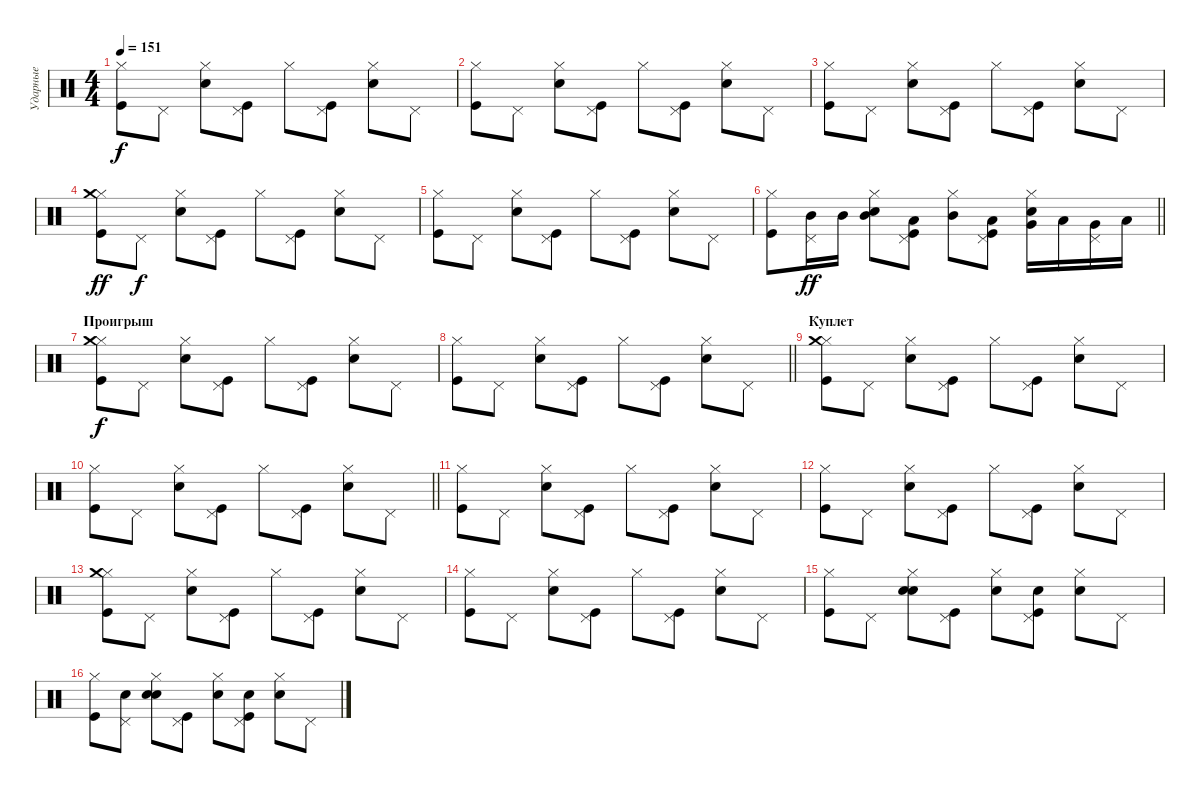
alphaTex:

\track ("Ударные" "Ударные") {instrument percussion}
\staff {score}
\articulation defaults
\ts (4 4)
\tempo 151
\clef neutral
\ks c
("Hi-Hat (closed)" "Kick (hit)").8{dy f} "Pedal Hi-Hat (hit)".8 ("Hi-Hat (closed)" "Snare (hit) 2").8 ("Pedal Hi-Hat (hit)" "Kick (hit)").8 "Hi-Hat (closed)".8 ("Pedal Hi-Hat (hit)" "Kick (hit)").8 ("Hi-Hat (closed)" "Snare (hit) 2").8 "Pedal Hi-Hat (hit)".8 |
("Hi-Hat (closed)" "Kick (hit)").8 "Pedal Hi-Hat (hit)".8 ("Hi-Hat (closed)" "Snare (hit) 2").8 ("Pedal Hi-Hat (hit)" "Kick (hit)").8 "Hi-Hat (closed)".8 ("Pedal Hi-Hat (hit)" "Kick (hit)").8 ("Hi-Hat (closed)" "Snare (hit) 2").8 "Pedal Hi-Hat (hit)".8 |
("Hi-Hat (closed)" "Kick (hit)").8 "Pedal Hi-Hat (hit)".8 ("Hi-Hat (closed)" "Snare (hit) 2").8 ("Pedal Hi-Hat (hit)" "Kick (hit)").8 "Hi-Hat (closed)".8 ("Pedal Hi-Hat (hit)" "Kick (hit)").8 ("Hi-Hat (closed)" "Snare (hit) 2").8 "Pedal Hi-Hat (hit)".8 |
("Hi-Hat (closed)" "Kick (hit)" "Crash medium (hit)").8{dy ff} "Pedal Hi-Hat (hit)".8{dy f} ("Hi-Hat (closed)" "Snare (hit) 2").8 ("Pedal Hi-Hat (hit)" "Kick (hit)").8 "Hi-Hat (closed)".8 ("Pedal Hi-Hat (hit)" "Kick (hit)").8 ("Hi-Hat (closed)" "Snare (hit) 2").8 "Pedal Hi-Hat (hit)".8 |
("Hi-Hat (closed)" "Kick (hit)").8 "Pedal Hi-Hat (hit)".8 ("Hi-Hat (closed)" "Snare (hit) 2").8 ("Pedal Hi-Hat (hit)" "Kick (hit)").8 "Hi-Hat (closed)".8 ("Pedal Hi-Hat (hit)" "Kick (hit)").8 ("Hi-Hat (closed)" "Snare (hit) 2").8 "Pedal Hi-Hat (hit)".8 |
\barLineRight lightlight
("Hi-Hat (closed)" "Kick (hit)").8 ("Pedal Hi-Hat (hit)" "Mid Tom (hit)").16{dy ff} "Mid Tom (hit)".16 ("Hi-Hat (closed)" "Snare (hit) 2" "Mid Tom (hit)").8 ("Pedal Hi-Hat (hit)" "Kick (hit)" "Low Tom (hit)").8 ("Hi-Hat (closed)" "Mid Tom (hit)").8 ("Pedal Hi-Hat (hit)" "Kick (hit)" "Low Tom (hit)").8 ("Hi-Hat (closed)" "Snare (hit) 2" "Very Low Tom (hit)").16 "Low Tom (hit)".16 ("Pedal Hi-Hat (hit)" "Very Low Tom (hit)").16 "Low Tom (hit)".16 |
\section ("" "Проигрыш")
("Hi-Hat (closed)" "Kick (hit)" "Crash medium (hit)").8{dy f} "Pedal Hi-Hat (hit)".8 ("Hi-Hat (closed)" "Snare (hit) 2").8 ("Pedal Hi-Hat (hit)" "Kick (hit)").8 "Hi-Hat (closed)".8 ("Pedal Hi-Hat (hit)" "Kick (hit)").8 ("Hi-Hat (closed)" "Snare (hit) 2").8 "Pedal Hi-Hat (hit)".8 |
\barLineRight lightlight
("Hi-Hat (closed)" "Kick (hit)").8 "Pedal Hi-Hat (hit)".8 ("Hi-Hat (closed)" "Snare (hit) 2").8 ("Pedal Hi-Hat (hit)" "Kick (hit)").8 "Hi-Hat (closed)".8 ("Pedal Hi-Hat (hit)" "Kick (hit)").8 ("Hi-Hat (closed)" "Snare (hit) 2").8 "Pedal Hi-Hat (hit)".8 |
\section ("" "Куплет")
("Hi-Hat (closed)" "Kick (hit)" "Crash medium (hit)").8 "Pedal Hi-Hat (hit)".8 ("Hi-Hat (closed)" "Snare (hit) 2").8 ("Pedal Hi-Hat (hit)" "Kick (hit)").8 "Hi-Hat (closed)".8 ("Pedal Hi-Hat (hit)" "Kick (hit)").8 ("Hi-Hat (closed)" "Snare (hit) 2").8 "Pedal Hi-Hat (hit)".8 |
\barLineRight lightlight
("Hi-Hat (closed)" "Kick (hit)").8 "Pedal Hi-Hat (hit)".8 ("Hi-Hat (closed)" "Snare (hit) 2").8 ("Pedal Hi-Hat (hit)" "Kick (hit)").8 "Hi-Hat (closed)".8 ("Pedal Hi-Hat (hit)" "Kick (hit)").8 ("Hi-Hat (closed)" "Snare (hit) 2").8 "Pedal Hi-Hat (hit)".8 |
("Hi-Hat (closed)" "Kick (hit)").8 "Pedal Hi-Hat (hit)".8 ("Hi-Hat (closed)" "Snare (hit) 2").8 ("Pedal Hi-Hat (hit)" "Kick (hit)").8 "Hi-Hat (closed)".8 ("Pedal Hi-Hat (hit)" "Kick (hit)").8 ("Hi-Hat (closed)" "Snare (hit) 2").8 "Pedal Hi-Hat (hit)".8 |
("Hi-Hat (closed)" "Kick (hit)").8 "Pedal Hi-Hat (hit)".8 ("Hi-Hat (closed)" "Snare (hit) 2").8 ("Pedal Hi-Hat (hit)" "Kick (hit)").8 "Hi-Hat (closed)".8 ("Pedal Hi-Hat (hit)" "Kick (hit)").8 ("Hi-Hat (closed)" "Snare (hit) 2").8 "Pedal Hi-Hat (hit)".8 |
("Hi-Hat (closed)" "Kick (hit)" "Crash medium (hit)").8 "Pedal Hi-Hat (hit)".8 ("Hi-Hat (closed)" "Snare (hit) 2").8 ("Pedal Hi-Hat (hit)" "Kick (hit)").8 "Hi-Hat (closed)".8 ("Pedal Hi-Hat (hit)" "Kick (hit)").8 ("Hi-Hat (closed)" "Snare (hit) 2").8 "Pedal Hi-Hat (hit)".8 |
("Hi-Hat (closed)" "Kick (hit)").8 "Pedal Hi-Hat (hit)".8 ("Hi-Hat (closed)" "Snare (hit) 2").8 ("Pedal Hi-Hat (hit)" "Kick (hit)").8 "Hi-Hat (closed)".8 ("Pedal Hi-Hat (hit)" "Kick (hit)").8 ("Hi-Hat (closed)" "Snare (hit) 2").8 "Pedal Hi-Hat (hit)".8 |
("Hi-Hat (closed)" "Kick (hit)").8 "Pedal Hi-Hat (hit)".8 ("Hi-Hat (closed)" "Snare (hit) 2" "Hand Clap (hit)").8 ("Pedal Hi-Hat (hit)" "Kick (hit)").8 ("Hi-Hat (closed)" "Hand Clap (hit)").8 ("Pedal Hi-Hat (hit)" "Kick (hit)" "Hand Clap (hit)").8 ("Hi-Hat (closed)" "Snare (hit) 2").8 "Pedal Hi-Hat (hit)".8 |
("Hi-Hat (closed)" "Kick (hit)").8 ("Pedal Hi-Hat (hit)" "Hand Clap (hit)").8 ("Hi-Hat (closed)" "Snare (hit) 2" "Hand Clap (hit)").8 ("Pedal Hi-Hat (hit)" "Kick (hit)").8 ("Hi-Hat (closed)" "Hand Clap (hit)").8 ("Pedal Hi-Hat (hit)" "Kick (hit)" "Hand Clap (hit)").8 ("Hi-Hat (closed)" "Snare (hit) 2").8 "Pedal Hi-Hat (hit)".8
